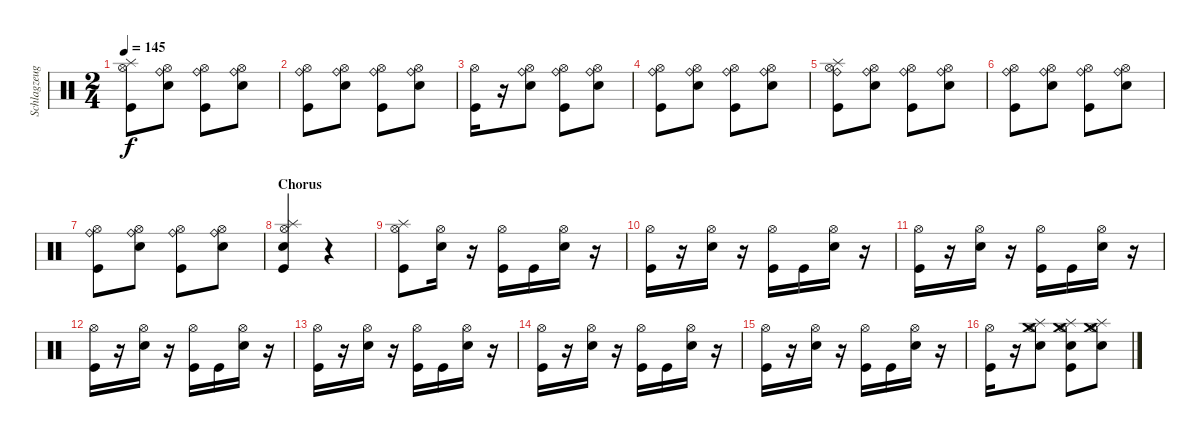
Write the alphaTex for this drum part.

\track ("Schlagzeug - Bela B." "Schlagzeug") {instrument percussion}
\staff {score}
\articulation defaults
\ts (2 4)
\tempo 145
\clef neutral
\ks c
("Kick (hit)" "Hi-Hat (open)" "Splash (hit)").8{dy f} ("Electric Snare (hit)" "Hi-Hat (open)" "Ride (bell)").8 ("Kick (hit)" "Hi-Hat (open)" "Ride (bell)").8 ("Electric Snare (hit)" "Hi-Hat (open)" "Ride (bell)").8 |
("Kick (hit)" "Hi-Hat (open)" "Ride (bell)").8 ("Electric Snare (hit)" "Hi-Hat (open)" "Ride (bell)").8 ("Kick (hit)" "Hi-Hat (open)" "Ride (bell)").8 ("Hi-Hat (open)" "Electric Snare (hit)" "Ride (bell)").8 |
("Kick (hit)" "Hi-Hat (open)").16 r.16 ("Electric Snare (hit)" "Hi-Hat (open)" "Ride (bell)").8 ("Kick (hit)" "Hi-Hat (open)" "Ride (bell)").8 ("Electric Snare (hit)" "Hi-Hat (open)" "Ride (bell)").8 |
("Kick (hit)" "Hi-Hat (open)" "Ride (bell)").8 ("Electric Snare (hit)" "Hi-Hat (open)" "Ride (bell)").8 ("Kick (hit)" "Hi-Hat (open)" "Ride (bell)").8 ("Hi-Hat (open)" "Electric Snare (hit)" "Ride (bell)").8 |
("Kick (hit)" "Hi-Hat (open)" "Ride (bell)" "Splash (hit)").8 ("Electric Snare (hit)" "Hi-Hat (open)" "Ride (bell)").8 ("Kick (hit)" "Hi-Hat (open)" "Ride (bell)").8 ("Electric Snare (hit)" "Hi-Hat (open)" "Ride (bell)").8 |
("Kick (hit)" "Hi-Hat (open)" "Ride (bell)").8 ("Electric Snare (hit)" "Hi-Hat (open)" "Ride (bell)").8 ("Kick (hit)" "Hi-Hat (open)" "Ride (bell)").8 ("Hi-Hat (open)" "Electric Snare (hit)" "Ride (bell)").8 |
("Kick (hit)" "Hi-Hat (open)" "Ride (bell)").8 ("Electric Snare (hit)" "Hi-Hat (open)" "Ride (bell)").8 ("Kick (hit)" "Hi-Hat (open)" "Ride (bell)").8 ("Electric Snare (hit)" "Hi-Hat (open)" "Ride (bell)").8 |
\section ("" "Chorus")
("Kick (hit)" "Hi-Hat (open)" "Electric Snare (hit)" "Splash (hit)").4 r.4 |
("Kick (hit)" "Hi-Hat (open)" "Splash (hit)").8 ("Electric Snare (hit)" "Hi-Hat (open)").16 r.16 ("Kick (hit)" "Hi-Hat (open)").16 "Kick (hit)".16 ("Electric Snare (hit)" "Hi-Hat (open)").16 r.16 |
("Kick (hit)" "Hi-Hat (open)").16 r.16 ("Electric Snare (hit)" "Hi-Hat (open)").16 r.16 ("Kick (hit)" "Hi-Hat (open)").16 "Kick (hit)".16 ("Electric Snare (hit)" "Hi-Hat (open)").16 r.16 |
("Kick (hit)" "Hi-Hat (open)").16 r.16 ("Electric Snare (hit)" "Hi-Hat (open)").16 r.16 ("Kick (hit)" "Hi-Hat (open)").16 "Kick (hit)".16 ("Electric Snare (hit)" "Hi-Hat (open)").16 r.16 |
("Kick (hit)" "Hi-Hat (open)").16 r.16 ("Electric Snare (hit)" "Hi-Hat (open)").16 r.16 ("Kick (hit)" "Hi-Hat (open)").16 "Kick (hit)".16 ("Electric Snare (hit)" "Hi-Hat (open)").16 r.16 |
("Kick (hit)" "Hi-Hat (open)").16 r.16 ("Electric Snare (hit)" "Hi-Hat (open)").16 r.16 ("Kick (hit)" "Hi-Hat (open)").16 "Kick (hit)".16 ("Electric Snare (hit)" "Hi-Hat (open)").16 r.16 |
("Kick (hit)" "Hi-Hat (open)").16 r.16 ("Electric Snare (hit)" "Hi-Hat (open)").16 r.16 ("Kick (hit)" "Hi-Hat (open)").16 "Kick (hit)".16 ("Electric Snare (hit)" "Hi-Hat (open)").16 r.16 |
("Kick (hit)" "Hi-Hat (open)").16 r.16 ("Electric Snare (hit)" "Hi-Hat (open)").16 r.16 ("Kick (hit)" "Hi-Hat (open)").16 "Kick (hit)".16 ("Electric Snare (hit)" "Hi-Hat (open)").16 r.16 |
("Kick (hit)" "Hi-Hat (open)").16 r.16 ("Electric Snare (hit)" "Hi-Hat (open)" "Splash (hit)" "Crash medium (hit)").8 ("Kick (hit)" "Hi-Hat (open)" "Electric Snare (hit)" "Splash (hit)" "Crash medium (hit)").8 ("Electric Snare (hit)" "Hi-Hat (open)" "Splash (hit)" "Crash medium (hit)").8
